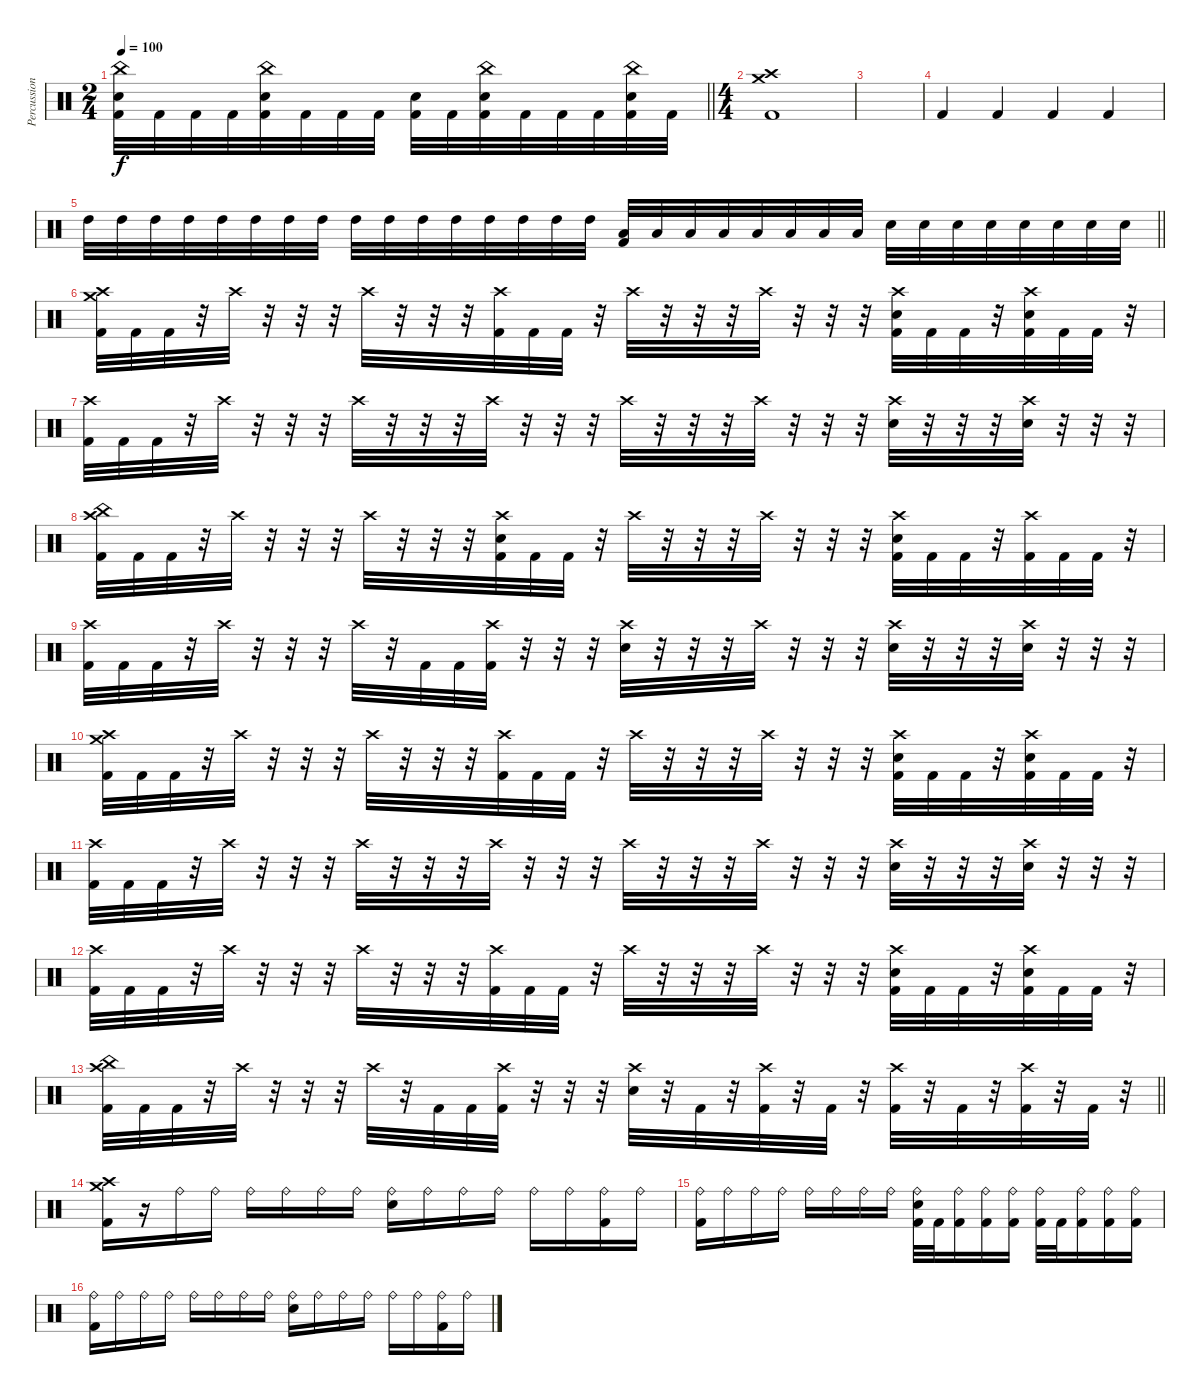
\track ("Percussion" "Percussion") {instrument percussion}
\staff {score}
\articulation defaults
\ts (2 4)
\tempo 100
\clef neutral
\barLineRight lightlight
\ks c
("China (hit)" "Snare (hit) 2" "Kick (hit) 2").32{dy f} "Kick (hit) 2".32 "Kick (hit) 2".32 "Kick (hit) 2".32 ("China (hit)" "Snare (hit) 2" "Kick (hit) 2").32 "Kick (hit) 2".32 "Kick (hit) 2".32 "Kick (hit) 2".32 ("Snare (hit) 2" "Kick (hit) 2").32 "Kick (hit) 2".32 ("China (hit)" "Snare (hit) 2" "Kick (hit) 2").32 "Kick (hit) 2".32 "Kick (hit) 2".32 "Kick (hit) 2".32 ("China (hit)" "Snare (hit) 2" "Kick (hit) 2").32 "Kick (hit) 2".32 |
\ts (4 4)
\section ("" "")
("Crash high (hit)" "Crash medium (hit)" "Kick (hit) 2").1 |
|
"Kick (hit) 2".4 "Kick (hit) 2".4 "Kick (hit) 2".4 "Kick (hit) 2".4 |
\barLineRight lightlight "High Tom (hit)".32 "High Tom (hit)".32 "High Tom (hit)".32 "High Tom (hit)".32 "High Tom (hit)".32 "High Tom (hit)".32 "High Tom (hit)".32 "High Tom (hit)".32 "High Tom (hit)".32 "High Tom (hit)".32 "High Tom (hit)".32 "High Tom (hit)".32 "High Tom (hit)".32 "High Tom (hit)".32 "High Tom (hit)".32 "High Tom (hit)".32
("Low Tom (hit)" "Kick (hit) 2").32 "Low Tom (hit)".32 "Low Tom (hit)".32 "Low Tom (hit)".32 "Low Tom (hit)".32 "Low Tom (hit)".32 "Low Tom (hit)".32 "Low Tom (hit)".32 "Snare (hit) 2".32 "Snare (hit) 2".32 "Snare (hit) 2".32 "Snare (hit) 2".32 "Snare (hit) 2".32 "Snare (hit) 2".32 "Snare (hit) 2".32 "Snare (hit) 2".32 |
\section ("" "")
("Crash high (hit)" "Crash medium (hit)" "Kick (hit) 2").32 "Kick (hit) 2".32 "Kick (hit) 2".32 r.32 "Crash high (hit)".32 r.32 r.32 r.32 "Crash high (hit)".32 r.32 r.32 r.32 ("Crash high (hit)" "Kick (hit) 2").32 "Kick (hit) 2".32 "Kick (hit) 2".32 r.32 "Crash high (hit)".32 r.32 r.32 r.32 "Crash high (hit)".32 r.32 r.32 r.32 ("Crash high (hit)" "Snare (hit) 2" "Kick (hit) 2").32 "Kick (hit) 2".32 "Kick (hit) 2".32 r.32 ("Crash high (hit)" "Snare (hit) 2" "Kick (hit) 2").32 "Kick (hit) 2".32 "Kick (hit) 2".32 r.32 |
("Crash high (hit)" "Kick (hit) 2").32 "Kick (hit) 2".32 "Kick (hit) 2".32 r.32 "Crash high (hit)".32 r.32 r.32 r.32 "Crash high (hit)".32 r.32 r.32 r.32 "Crash high (hit)".32 r.32 r.32 r.32 "Crash high (hit)".32 r.32 r.32 r.32 "Crash high (hit)".32 r.32 r.32 r.32 ("Crash high (hit)" "Snare (hit) 2").32 r.32 r.32 r.32 ("Crash high (hit)" "Snare (hit) 2").32 r.32 r.32 r.32 |
("Crash high (hit)" "China (hit)" "Kick (hit) 2").32 "Kick (hit) 2".32 "Kick (hit) 2".32 r.32 "Crash high (hit)".32 r.32 r.32 r.32 "Crash high (hit)".32 r.32 r.32 r.32 ("Crash high (hit)" "Snare (hit) 2" "Kick (hit) 2").32 "Kick (hit) 2".32 "Kick (hit) 2".32 r.32 "Crash high (hit)".32 r.32 r.32 r.32 "Crash high (hit)".32 r.32 r.32 r.32 ("Crash high (hit)" "Snare (hit) 2" "Kick (hit) 2").32 "Kick (hit) 2".32 "Kick (hit) 2".32 r.32 ("Crash high (hit)" "Kick (hit) 2").32 "Kick (hit) 2".32 "Kick (hit) 2".32 r.32 |
("Crash high (hit)" "Kick (hit) 2").32 "Kick (hit) 2".32 "Kick (hit) 2".32 r.32 "Crash high (hit)".32 r.32 r.32 r.32 "Crash high (hit)".32 r.32 "Kick (hit) 2".32 "Kick (hit) 2".32 ("Crash high (hit)" "Kick (hit) 2").32 r.32 r.32 r.32 ("Crash high (hit)" "Snare (hit) 2").32 r.32 r.32 r.32 "Crash high (hit)".32 r.32 r.32 r.32 ("Crash high (hit)" "Snare (hit) 2").32 r.32 r.32 r.32 ("Crash high (hit)" "Snare (hit) 2").32 r.32 r.32 r.32 |
("Crash high (hit)" "Crash medium (hit)" "Kick (hit) 2").32 "Kick (hit) 2".32 "Kick (hit) 2".32 r.32 "Crash high (hit)".32 r.32 r.32 r.32 "Crash high (hit)".32 r.32 r.32 r.32 ("Crash high (hit)" "Kick (hit) 2").32 "Kick (hit) 2".32 "Kick (hit) 2".32 r.32 "Crash high (hit)".32 r.32 r.32 r.32 "Crash high (hit)".32 r.32 r.32 r.32 ("Crash high (hit)" "Snare (hit) 2" "Kick (hit) 2").32 "Kick (hit) 2".32 "Kick (hit) 2".32 r.32 ("Crash high (hit)" "Snare (hit) 2" "Kick (hit) 2").32 "Kick (hit) 2".32 "Kick (hit) 2".32 r.32 |
("Crash high (hit)" "Kick (hit) 2").32 "Kick (hit) 2".32 "Kick (hit) 2".32 r.32 "Crash high (hit)".32 r.32 r.32 r.32 "Crash high (hit)".32 r.32 r.32 r.32 "Crash high (hit)".32 r.32 r.32 r.32 "Crash high (hit)".32 r.32 r.32 r.32 "Crash high (hit)".32 r.32 r.32 r.32 ("Crash high (hit)" "Snare (hit) 2").32 r.32 r.32 r.32 ("Crash high (hit)" "Snare (hit) 2").32 r.32 r.32 r.32 |
("Crash high (hit)" "Kick (hit) 2").32 "Kick (hit) 2".32 "Kick (hit) 2".32 r.32 "Crash high (hit)".32 r.32 r.32 r.32 "Crash high (hit)".32 r.32 r.32 r.32 ("Crash high (hit)" "Kick (hit) 2").32 "Kick (hit) 2".32 "Kick (hit) 2".32 r.32 "Crash high (hit)".32 r.32 r.32 r.32 "Crash high (hit)".32 r.32 r.32 r.32 ("Crash high (hit)" "Snare (hit) 2" "Kick (hit) 2").32 "Kick (hit) 2".32 "Kick (hit) 2".32 r.32 ("Crash high (hit)" "Snare (hit) 2" "Kick (hit) 2").32 "Kick (hit) 2".32 "Kick (hit) 2".32 r.32 |
\barLineRight lightlight
("Crash high (hit)" "China (hit)" "Kick (hit) 2").32 "Kick (hit) 2".32 "Kick (hit) 2".32 r.32 "Crash high (hit)".32 r.32 r.32 r.32 "Crash high (hit)".32 r.32 "Kick (hit) 2".32 "Kick (hit) 2".32 ("Crash high (hit)" "Kick (hit) 2").32 r.32 r.32 r.32 ("Crash high (hit)" "Snare (hit) 2").32 r.32 "Kick (hit) 2".32 r.32 ("Crash high (hit)" "Kick (hit) 2").32 r.32 "Kick (hit) 2".32 r.32 ("Crash high (hit)" "Kick (hit) 2").32 r.32 "Kick (hit) 2".32 r.32 ("Crash high (hit)" "Kick (hit) 2").32 r.32 "Kick (hit) 2".32 r.32 |
\section ("" "")
("Crash high (hit)" "Crash medium (hit)" "Kick (hit) 2").16 r.16 "Ride (bell)".16 "Ride (bell)".16 "Ride (bell)".16 "Ride (bell)".16 "Ride (bell)".16 "Ride (bell)".16 ("Ride (bell)" "Snare (hit) 2").16 "Ride (bell)".16 "Ride (bell)".16 "Ride (bell)".16 "Ride (bell)".16 "Ride (bell)".16 ("Ride (bell)" "Kick (hit) 2").16 "Ride (bell)".16 |
("Ride (bell)" "Kick (hit) 2").16 "Ride (bell)".16 "Ride (bell)".16 "Ride (bell)".16 "Ride (bell)".16 "Ride (bell)".16 "Ride (bell)".16 "Ride (bell)".16 ("Ride (bell)" "Snare (hit) 2" "Kick (hit) 2").32 "Kick (hit) 2".32 ("Ride (bell)" "Kick (hit) 2").16 ("Ride (bell)" "Kick (hit) 2").16 ("Ride (bell)" "Kick (hit) 2").16 ("Ride (bell)" "Kick (hit) 2").32 "Kick (hit) 2".32 ("Ride (bell)" "Kick (hit) 2").16 ("Ride (bell)" "Kick (hit) 2").16 ("Ride (bell)" "Kick (hit) 2").16 |
("Ride (bell)" "Kick (hit) 2").16 "Ride (bell)".16 "Ride (bell)".16 "Ride (bell)".16 "Ride (bell)".16 "Ride (bell)".16 "Ride (bell)".16 "Ride (bell)".16 ("Ride (bell)" "Snare (hit) 2").16 "Ride (bell)".16 "Ride (bell)".16 "Ride (bell)".16 "Ride (bell)".16 "Ride (bell)".16 ("Ride (bell)" "Kick (hit) 2").16 "Ride (bell)".16
